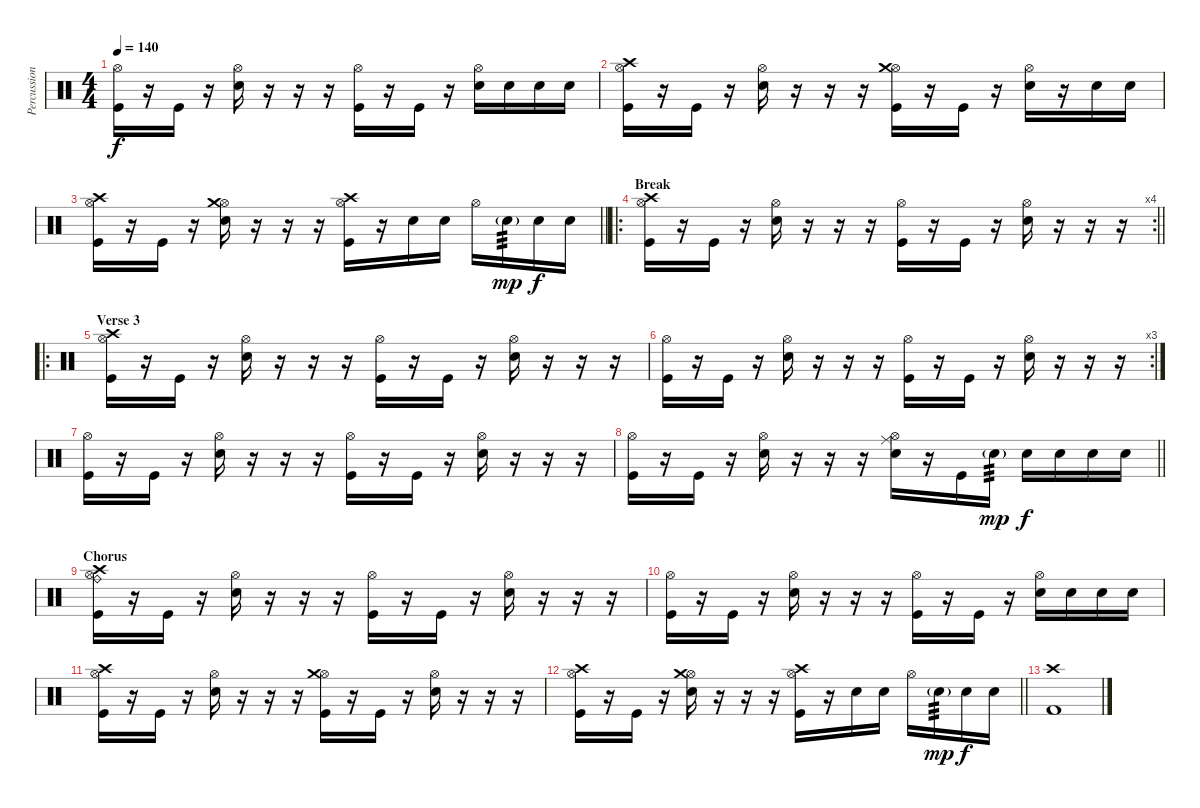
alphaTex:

\track ("Percussion" "Percussion") {instrument percussion}
\staff {score}
\articulation defaults
\ts (4 4)
\tempo 140
\clef neutral
\ks c
("Hi-Hat (open)" "Kick (hit)").16{dy f} r.16 "Kick (hit)".16 r.16 ("Hi-Hat (open)" "Snare (hit) 2").16 r.16 r.16 r.16 ("Hi-Hat (open)" "Kick (hit)").16 r.16 "Kick (hit)".16 r.16 ("Hi-Hat (open)" "Snare (hit) 2").16 "Snare (hit) 2".16 "Snare (hit) 2".16 "Snare (hit) 2".16 |
("Hi-Hat (open)" "Crash high (hit)" "Kick (hit)").16 r.16 "Kick (hit)".16 r.16 ("Hi-Hat (open)" "Snare (hit) 2").16 r.16 r.16 r.16 ("Hi-Hat (open)" "Crash medium (hit)" "Kick (hit)").16 r.16 "Kick (hit)".16 r.16 ("Hi-Hat (open)" "Snare (hit) 2").16 r.16 "Snare (hit) 2".16 "Snare (hit) 2".16 |
\barLineRight lightlight
("Hi-Hat (open)" "Crash high (hit)" "Kick (hit)").16 r.16 "Kick (hit)".16 r.16 ("Hi-Hat (open)" "Crash medium (hit)" "Snare (hit) 2").16 r.16 r.16 r.16 ("Hi-Hat (open)" "Crash high (hit)" "Kick (hit)").16 r.16 "Snare (hit) 2".16 "Snare (hit) 2".16 "Hi-Hat (open)".16 "Snare (hit) 2"{g}.16{tp 3 dy mp} "Snare (hit) 2".16{dy f} "Snare (hit) 2".16 |
\ro
\rc 4
\section ("" "Break")
\barLineRight lightlight
("Hi-Hat (open)" "Crash high (hit)" "Kick (hit)").16 r.16 "Kick (hit)".16 r.16 ("Hi-Hat (open)" "Snare (hit) 2").16 r.16 r.16 r.16 ("Hi-Hat (open)" "Kick (hit)").16 r.16 "Kick (hit)".16 r.16 ("Hi-Hat (open)" "Snare (hit) 2").16 r.16 r.16 r.16 |
\ro
\section ("" "Verse 3")
("Hi-Hat (open)" "Crash high (hit)" "Kick (hit)").16 r.16 "Kick (hit)".16 r.16 ("Hi-Hat (open)" "Snare (hit) 2").16 r.16 r.16 r.16 ("Hi-Hat (open)" "Kick (hit)").16 r.16 "Kick (hit)".16 r.16 ("Hi-Hat (open)" "Snare (hit) 2").16 r.16 r.16 r.16 |
\rc 3
("Hi-Hat (open)" "Kick (hit)").16 r.16 "Kick (hit)".16 r.16 ("Hi-Hat (open)" "Snare (hit) 2").16 r.16 r.16 r.16 ("Hi-Hat (open)" "Kick (hit)").16 r.16 "Kick (hit)".16 r.16 ("Hi-Hat (open)" "Snare (hit) 2").16 r.16 r.16 r.16 |
("Hi-Hat (open)" "Kick (hit)").16 r.16 "Kick (hit)".16 r.16 ("Hi-Hat (open)" "Snare (hit) 2").16 r.16 r.16 r.16 ("Hi-Hat (open)" "Kick (hit)").16 r.16 "Kick (hit)".16 r.16 ("Hi-Hat (open)" "Snare (hit) 2").16 r.16 r.16 r.16 |
\barLineRight lightlight
("Hi-Hat (open)" "Kick (hit)").16 r.16 "Kick (hit)".16 r.16 ("Hi-Hat (open)" "Snare (hit) 2").16 r.16 r.16 r.16 ("Ride (middle)" "Hi-Hat (open)" "Snare (hit) 2").16 r.16 "Kick (hit)".16 "Snare (hit) 2"{g}.16{tp 3 dy mp} "Snare (hit) 2".16{dy f} "Snare (hit) 2".16 "Snare (hit) 2".16 "Snare (hit) 2".16 |
\section ("" "Chorus")
("Hi-Hat (open)" "Ride (bell)" "Crash high (hit)" "Kick (hit)").16 r.16 "Kick (hit)".16 r.16 ("Hi-Hat (open)" "Snare (hit) 2").16 r.16 r.16 r.16 ("Hi-Hat (open)" "Kick (hit)").16 r.16 "Kick (hit)".16 r.16 ("Hi-Hat (open)" "Snare (hit) 2").16 r.16 r.16 r.16 |
("Hi-Hat (open)" "Kick (hit)").16 r.16 "Kick (hit)".16 r.16 ("Hi-Hat (open)" "Snare (hit) 2").16 r.16 r.16 r.16 ("Hi-Hat (open)" "Kick (hit)").16 r.16 "Kick (hit)".16 r.16 ("Hi-Hat (open)" "Snare (hit) 2").16 "Snare (hit) 2".16 "Snare (hit) 2".16 "Snare (hit) 2".16 |
("Hi-Hat (open)" "Crash high (hit)" "Kick (hit)").16 r.16 "Kick (hit)".16 r.16 ("Hi-Hat (open)" "Snare (hit) 2").16 r.16 r.16 r.16 ("Hi-Hat (open)" "Crash medium (hit)" "Kick (hit)").16 r.16 "Kick (hit)".16 r.16 ("Hi-Hat (open)" "Snare (hit) 2").16 r.16 r.16 r.16 |
\barLineRight lightlight
("Hi-Hat (open)" "Crash high (hit)" "Kick (hit)").16 r.16 "Kick (hit)".16 r.16 ("Hi-Hat (open)" "Crash medium (hit)" "Snare (hit) 2").16 r.16 r.16 r.16 ("Hi-Hat (open)" "Crash high (hit)" "Kick (hit)").16 r.16 "Snare (hit) 2".16 "Snare (hit) 2".16 "Hi-Hat (open)".16 "Snare (hit) 2"{g}.16{tp 3 dy mp} "Snare (hit) 2".16{dy f} "Snare (hit) 2".16 |
("Crash high (hit)" "Kick (hit) 2").1
